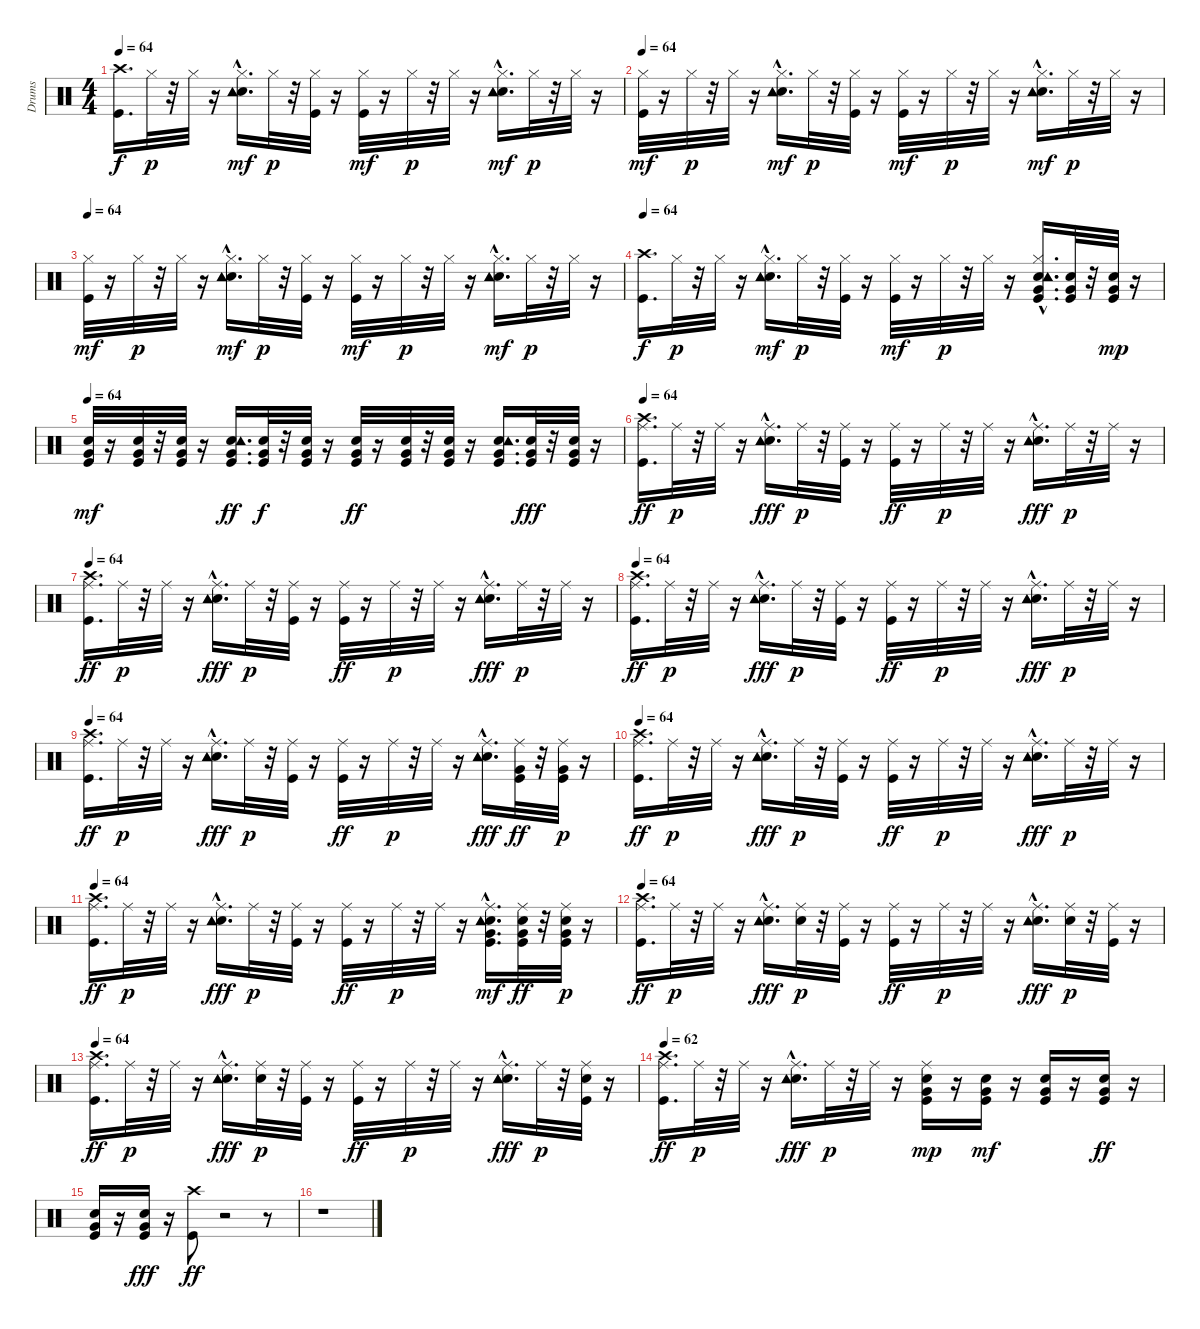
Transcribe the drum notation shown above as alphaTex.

\track ("Drums" "Drums") {instrument percussion}
\staff {score}
\articulation defaults
\ts (4 4)
\tempo 64
\clef neutral
\ks c
("Kick (hit)" "Crash high (hit)").16{d dy f} "Hi-Hat (closed)".32{dy p} r.32 "Hi-Hat (closed)".32 r.16 ("Snare (hit) 2" "Hi-Hat (closed)" "Tambourine (hit)"{hac} "Tambourine (hit)").16{d dy mf} "Hi-Hat (closed)".32{dy p} r.32 ("Kick (hit)" "Hi-Hat (closed)").32 r.16 ("Kick (hit)" "Hi-Hat (closed)").32{dy mf} r.16 "Hi-Hat (closed)".32{dy p} r.32 "Hi-Hat (closed)".32 r.16 ("Snare (hit) 2" "Hi-Hat (closed)" "Tambourine (hit)"{hac} "Tambourine (hit)").16{d dy mf} "Hi-Hat (closed)".32{dy p} r.32 "Hi-Hat (closed)".32 r.16 |
\tempo 64
("Kick (hit)" "Hi-Hat (closed)").32{dy mf} r.16 "Hi-Hat (closed)".32{dy p} r.32 "Hi-Hat (closed)".32 r.16 ("Snare (hit) 2" "Hi-Hat (closed)" "Tambourine (hit)"{hac} "Tambourine (hit)").16{d dy mf} "Hi-Hat (closed)".32{dy p} r.32 ("Kick (hit)" "Hi-Hat (closed)").32 r.16 ("Kick (hit)" "Hi-Hat (closed)").32{dy mf} r.16 "Hi-Hat (closed)".32{dy p} r.32 "Hi-Hat (closed)".32 r.16 ("Snare (hit) 2" "Hi-Hat (closed)" "Tambourine (hit)"{hac} "Tambourine (hit)").16{d dy mf} "Hi-Hat (closed)".32{dy p} r.32 "Hi-Hat (closed)".32 r.16 |
\tempo 64
("Kick (hit)" "Hi-Hat (closed)").32{dy mf} r.16 "Hi-Hat (closed)".32{dy p} r.32 "Hi-Hat (closed)".32 r.16 ("Snare (hit) 2" "Hi-Hat (closed)" "Tambourine (hit)"{hac} "Tambourine (hit)").16{d dy mf} "Hi-Hat (closed)".32{dy p} r.32 ("Kick (hit)" "Hi-Hat (closed)").32 r.16 ("Kick (hit)" "Hi-Hat (closed)").32{dy mf} r.16 "Hi-Hat (closed)".32{dy p} r.32 "Hi-Hat (closed)".32 r.16 ("Snare (hit) 2" "Hi-Hat (closed)" "Tambourine (hit)"{hac} "Tambourine (hit)").16{d dy mf} "Hi-Hat (closed)".32{dy p} r.32 "Hi-Hat (closed)".32 r.16 |
\tempo 64
("Kick (hit)" "Crash high (hit)").16{d dy f} "Hi-Hat (closed)".32{dy p} r.32 "Hi-Hat (closed)".32 r.16 ("Snare (hit) 2" "Hi-Hat (closed)" "Tambourine (hit)"{hac} "Tambourine (hit)").16{d dy mf} "Hi-Hat (closed)".32{dy p} r.32 ("Kick (hit)" "Hi-Hat (closed)").32 r.16 ("Kick (hit)" "Hi-Hat (closed)").32{dy mf} r.16 "Hi-Hat (closed)".32{dy p} r.32 "Hi-Hat (closed)".32 r.16 ("Kick (hit)" "Snare (hit) 2" "Hi-Hat (closed)" "Very Low Tom (hit)" "Tambourine (hit)"{hac} "Tambourine (hit)").16{d} ("Kick (hit)" "Snare (hit) 2" "Very Low Tom (hit)").32 r.32 ("Kick (hit)" "Snare (hit) 2" "Very Low Tom (hit)").32{dy mp} r.16 |
\tempo 64
("Kick (hit)" "Snare (hit) 2" "Very Low Tom (hit)").32{dy mf} r.16 ("Kick (hit)" "Snare (hit) 2" "Very Low Tom (hit)").32 r.32 ("Kick (hit)" "Snare (hit) 2" "Very Low Tom (hit)").32 r.16 ("Kick (hit)" "Snare (hit) 2" "Very Low Tom (hit)" "Tambourine (hit)").16{d dy ff} ("Kick (hit)" "Snare (hit) 2" "Very Low Tom (hit)").32{dy f} r.32 ("Kick (hit)" "Snare (hit) 2" "Very Low Tom (hit)").32 r.16 ("Kick (hit)" "Snare (hit) 2" "Very Low Tom (hit)").32{dy ff} r.16 ("Kick (hit)" "Snare (hit) 2" "Very Low Tom (hit)").32 r.32 ("Kick (hit)" "Snare (hit) 2" "Very Low Tom (hit)").32 r.16 ("Kick (hit)" "Snare (hit) 2" "Very Low Tom (hit)" "Tambourine (hit)").16{d} ("Kick (hit)" "Snare (hit) 2" "Very Low Tom (hit)").32{dy fff} r.32 ("Kick (hit)" "Snare (hit) 2" "Very Low Tom (hit)").32 r.16 |
\tempo 64
("Kick (hit)" "Ride (middle)" "Crash high (hit)").16{d dy ff} "Ride (middle)".32{dy p} r.32 "Ride (middle)".32 r.16 ("Snare (hit) 2" "Ride (middle)" "Tambourine (hit)"{hac} "Tambourine (hit)").16{d dy fff} "Ride (middle)".32{dy p} r.32 ("Kick (hit)" "Ride (middle)").32 r.16 ("Kick (hit)" "Ride (middle)").32{dy ff} r.16 "Ride (middle)".32{dy p} r.32 "Ride (middle)".32 r.16 ("Snare (hit) 2" "Ride (middle)" "Tambourine (hit)"{hac} "Tambourine (hit)").16{d dy fff} "Ride (middle)".32{dy p} r.32 "Ride (middle)".32 r.16 |
\tempo 64
("Kick (hit)" "Ride (middle)" "Crash high (hit)").16{d dy ff} "Ride (middle)".32{dy p} r.32 "Ride (middle)".32 r.16 ("Snare (hit) 2" "Ride (middle)" "Tambourine (hit)"{hac} "Tambourine (hit)").16{d dy fff} "Ride (middle)".32{dy p} r.32 ("Kick (hit)" "Ride (middle)").32 r.16 ("Kick (hit)" "Ride (middle)").32{dy ff} r.16 "Ride (middle)".32{dy p} r.32 "Ride (middle)".32 r.16 ("Snare (hit) 2" "Ride (middle)" "Tambourine (hit)"{hac} "Tambourine (hit)").16{d dy fff} "Ride (middle)".32{dy p} r.32 "Ride (middle)".32 r.16 |
\tempo 64
("Kick (hit)" "Ride (middle)" "Crash high (hit)").16{d dy ff} "Ride (middle)".32{dy p} r.32 "Ride (middle)".32 r.16 ("Snare (hit) 2" "Ride (middle)" "Tambourine (hit)"{hac} "Tambourine (hit)").16{d dy fff} "Ride (middle)".32{dy p} r.32 ("Kick (hit)" "Ride (middle)").32 r.16 ("Kick (hit)" "Ride (middle)").32{dy ff} r.16 "Ride (middle)".32{dy p} r.32 "Ride (middle)".32 r.16 ("Snare (hit) 2" "Ride (middle)" "Tambourine (hit)"{hac} "Tambourine (hit)").16{d dy fff} "Ride (middle)".32{dy p} r.32 "Ride (middle)".32 r.16 |
\tempo 64
("Kick (hit)" "Ride (middle)" "Crash high (hit)").16{d dy ff} "Ride (middle)".32{dy p} r.32 "Ride (middle)".32 r.16 ("Snare (hit) 2" "Ride (middle)" "Tambourine (hit)"{hac} "Tambourine (hit)").16{d dy fff} "Ride (middle)".32{dy p} r.32 ("Kick (hit)" "Ride (middle)").32 r.16 ("Kick (hit)" "Ride (middle)").32{dy ff} r.16 "Ride (middle)".32{dy p} r.32 "Ride (middle)".32 r.16 ("Snare (hit) 2" "Ride (middle)" "Tambourine (hit)"{hac} "Tambourine (hit)").16{d dy fff} ("Kick (hit)" "Ride (middle)" "Very Low Tom (hit)").32{dy ff} r.32 ("Kick (hit)" "Very Low Tom (hit)" "Ride (middle)").32{dy p} r.16 |
\tempo 64
("Kick (hit)" "Ride (middle)" "Crash high (hit)").16{d dy ff} "Ride (middle)".32{dy p} r.32 "Ride (middle)".32 r.16 ("Snare (hit) 2" "Ride (middle)" "Tambourine (hit)"{hac} "Tambourine (hit)").16{d dy fff} "Ride (middle)".32{dy p} r.32 ("Kick (hit)" "Ride (middle)").32 r.16 ("Kick (hit)" "Ride (middle)").32{dy ff} r.16 "Ride (middle)".32{dy p} r.32 "Ride (middle)".32 r.16 ("Snare (hit) 2" "Ride (middle)" "Tambourine (hit)"{hac} "Tambourine (hit)").16{d dy fff} "Ride (middle)".32{dy p} r.32 "Ride (middle)".32 r.16 |
\tempo 64
("Kick (hit)" "Ride (middle)" "Crash high (hit)").16{d dy ff} "Ride (middle)".32{dy p} r.32 "Ride (middle)".32 r.16 ("Snare (hit) 2" "Ride (middle)" "Tambourine (hit)"{hac} "Tambourine (hit)").16{d dy fff} "Ride (middle)".32{dy p} r.32 ("Kick (hit)" "Ride (middle)").32 r.16 ("Kick (hit)" "Ride (middle)").32{dy ff} r.16 "Ride (middle)".32{dy p} r.32 "Ride (middle)".32 r.16 ("Kick (hit)" "Snare (hit) 2" "Ride (middle)" "Very Low Tom (hit)" "Tambourine (hit)"{hac} "Tambourine (hit)").16{d dy mf} ("Kick (hit)" "Snare (hit) 2" "Ride (middle)" "Very Low Tom (hit)").32{dy ff} r.32 ("Kick (hit)" "Snare (hit) 2" "Very Low Tom (hit)" "Ride (middle)").32{dy p} r.16 |
\tempo 64
("Kick (hit)" "Ride (middle)" "Crash high (hit)").16{d dy ff} "Ride (middle)".32{dy p} r.32 "Ride (middle)".32 r.16 ("Snare (hit) 2" "Ride (middle)" "Tambourine (hit)"{hac} "Tambourine (hit)").16{d dy fff} ("Snare (hit) 2" "Ride (middle)").32{dy p} r.32 ("Kick (hit)" "Ride (middle)").32 r.16 ("Kick (hit)" "Ride (middle)").32{dy ff} r.16 "Ride (middle)".32{dy p} r.32 "Ride (middle)".32 r.16 ("Snare (hit) 2" "Ride (middle)" "Tambourine (hit)"{hac} "Tambourine (hit)").16{d dy fff} ("Snare (hit) 2" "Ride (middle)").32{dy p} r.32 ("Kick (hit)" "Ride (middle)").32 r.16 |
\tempo 64
("Kick (hit)" "Ride (middle)" "Crash high (hit)").16{d dy ff} "Ride (middle)".32{dy p} r.32 "Ride (middle)".32 r.16 ("Snare (hit) 2" "Ride (middle)" "Tambourine (hit)"{hac} "Tambourine (hit)").16{d dy fff} ("Snare (hit) 2" "Ride (middle)").32{dy p} r.32 ("Kick (hit)" "Ride (middle)").32 r.16 ("Kick (hit)" "Ride (middle)").32{dy ff} r.16 "Ride (middle)".32{dy p} r.32 "Ride (middle)".32 r.16 ("Snare (hit) 2" "Ride (middle)" "Tambourine (hit)"{hac} "Tambourine (hit)").16{d dy fff} "Ride (middle)".32{dy p} r.32 ("Kick (hit)" "Snare (hit) 2" "Ride (middle)").32 r.16 |
\tempo 62
("Kick (hit)" "Ride (middle)" "Crash high (hit)").16{d dy ff} "Ride (middle)".32{dy p} r.32 "Ride (middle)".32 r.16 ("Snare (hit) 2" "Ride (middle)" "Tambourine (hit)"{hac} "Tambourine (hit)").16{d dy fff} "Ride (middle)".32{dy p} r.32 "Ride (middle)".32 r.16 ("Kick (hit)" "Snare (hit) 2" "Ride (middle)" "Very Low Tom (hit)").16{dy mp} r.16 ("Kick (hit)" "Snare (hit) 2" "Very Low Tom (hit)").16{dy mf} r.16 ("Kick (hit)" "Snare (hit) 2" "Very Low Tom (hit)").16 r.16 ("Kick (hit)" "Snare (hit) 2" "Very Low Tom (hit)").16{dy ff} r.16 |
("Kick (hit)" "Snare (hit) 2" "Very Low Tom (hit)").16 r.16 ("Kick (hit)" "Snare (hit) 2" "Very Low Tom (hit)").16{dy fff} r.16 ("Kick (hit)" "Crash high (hit)").8{dy ff} r.2 r.8 |
r.1
